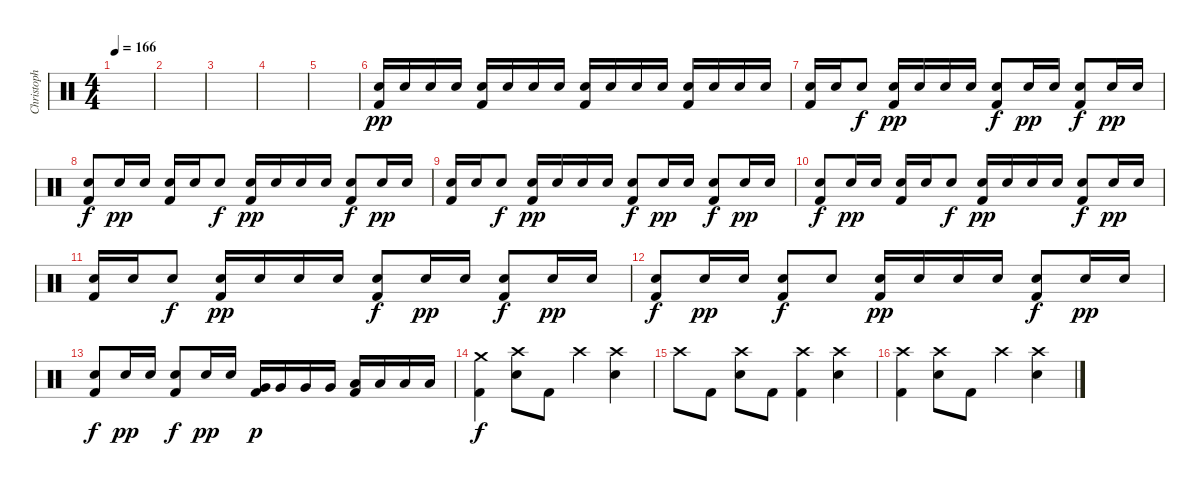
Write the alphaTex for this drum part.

\track ("Christoph" "Christoph") {instrument percussion}
\staff {score}
\articulation defaults
\ts (4 4)
\tempo 166
\clef neutral
\ks c
|
|
|
|
|
("Electric Snare (hit)" "Kick (hit) 2").16{dy pp} "Electric Snare (hit)".16 "Electric Snare (hit)".16 "Electric Snare (hit)".16 ("Electric Snare (hit)" "Kick (hit) 2").16 "Electric Snare (hit)".16 "Electric Snare (hit)".16 "Electric Snare (hit)".16 ("Electric Snare (hit)" "Kick (hit) 2").16 "Electric Snare (hit)".16 "Electric Snare (hit)".16 "Electric Snare (hit)".16 ("Electric Snare (hit)" "Kick (hit) 2").16 "Electric Snare (hit)".16 "Electric Snare (hit)".16 "Electric Snare (hit)".16 |
("Electric Snare (hit)" "Kick (hit) 2").16 "Electric Snare (hit)".16 "Electric Snare (hit)".8{dy f} ("Electric Snare (hit)" "Kick (hit) 2").16{dy pp} "Electric Snare (hit)".16 "Electric Snare (hit)".16 "Electric Snare (hit)".16 ("Electric Snare (hit)" "Kick (hit) 2").8{dy f} "Electric Snare (hit)".16{dy pp} "Electric Snare (hit)".16 ("Electric Snare (hit)" "Kick (hit) 2").8{dy f} "Electric Snare (hit)".16{dy pp} "Electric Snare (hit)".16 |
("Electric Snare (hit)" "Kick (hit) 2").8{dy f} "Electric Snare (hit)".16{dy pp} "Electric Snare (hit)".16 ("Electric Snare (hit)" "Kick (hit) 2").16 "Electric Snare (hit)".16 "Electric Snare (hit)".8{dy f} ("Electric Snare (hit)" "Kick (hit) 2").16{dy pp} "Electric Snare (hit)".16 "Electric Snare (hit)".16 "Electric Snare (hit)".16 ("Electric Snare (hit)" "Kick (hit) 2").8{dy f} "Electric Snare (hit)".16{dy pp} "Electric Snare (hit)".16 |
("Electric Snare (hit)" "Kick (hit) 2").16 "Electric Snare (hit)".16 "Electric Snare (hit)".8{dy f} ("Electric Snare (hit)" "Kick (hit) 2").16{dy pp} "Electric Snare (hit)".16 "Electric Snare (hit)".16 "Electric Snare (hit)".16 ("Electric Snare (hit)" "Kick (hit) 2").8{dy f} "Electric Snare (hit)".16{dy pp} "Electric Snare (hit)".16 ("Electric Snare (hit)" "Kick (hit) 2").8{dy f} "Electric Snare (hit)".16{dy pp} "Electric Snare (hit)".16 |
("Electric Snare (hit)" "Kick (hit) 2").8{dy f} "Electric Snare (hit)".16{dy pp} "Electric Snare (hit)".16 ("Electric Snare (hit)" "Kick (hit) 2").16 "Electric Snare (hit)".16 "Electric Snare (hit)".8{dy f} ("Electric Snare (hit)" "Kick (hit) 2").16{dy pp} "Electric Snare (hit)".16 "Electric Snare (hit)".16 "Electric Snare (hit)".16 ("Electric Snare (hit)" "Kick (hit) 2").8{dy f} "Electric Snare (hit)".16{dy pp} "Electric Snare (hit)".16 |
("Electric Snare (hit)" "Kick (hit) 2").16 "Electric Snare (hit)".16 "Electric Snare (hit)".8{dy f} ("Electric Snare (hit)" "Kick (hit) 2").16{dy pp} "Electric Snare (hit)".16 "Electric Snare (hit)".16 "Electric Snare (hit)".16 ("Electric Snare (hit)" "Kick (hit) 2").8{dy f} "Electric Snare (hit)".16{dy pp} "Electric Snare (hit)".16 ("Electric Snare (hit)" "Kick (hit) 2").8{dy f} "Electric Snare (hit)".16{dy pp} "Electric Snare (hit)".16 |
("Electric Snare (hit)" "Kick (hit) 2").8{dy f} "Electric Snare (hit)".16{dy pp} "Electric Snare (hit)".16 ("Electric Snare (hit)" "Kick (hit) 2").8{dy f} "Electric Snare (hit)".8 ("Electric Snare (hit)" "Kick (hit) 2").16{dy pp} "Electric Snare (hit)".16 "Electric Snare (hit)".16 "Electric Snare (hit)".16 ("Electric Snare (hit)" "Kick (hit) 2").8{dy f} "Electric Snare (hit)".16{dy pp} "Electric Snare (hit)".16 |
("Electric Snare (hit)" "Kick (hit) 2").8{dy f} "Electric Snare (hit)".16{dy pp} "Electric Snare (hit)".16 ("Electric Snare (hit)" "Kick (hit) 2").8{dy f} "Electric Snare (hit)".16{dy pp} "Electric Snare (hit)".16 ("Very Low Tom (hit)" "Kick (hit) 2").16{dy p} "Very Low Tom (hit)".16 "Very Low Tom (hit)".16 "Very Low Tom (hit)".16 ("Low Floor Tom (hit)" "Kick (hit) 2").16 "Low Floor Tom (hit)".16 "Low Floor Tom (hit)".16 "Low Floor Tom (hit)".16 |
("Crash medium (hit)" "Kick (hit) 2").4{dy f} ("Crash high (hit)" "Electric Snare (hit)").8 "Kick (hit) 2".8 "Crash high (hit)".4 ("Crash high (hit)" "Electric Snare (hit)").4 |
"Crash high (hit)".8 "Kick (hit) 2".8 ("Crash high (hit)" "Electric Snare (hit)").8 "Kick (hit) 2".8 ("Crash high (hit)" "Kick (hit) 2").4 ("Crash high (hit)" "Electric Snare (hit)").4 |
("Crash high (hit)" "Kick (hit) 2").4 ("Crash high (hit)" "Electric Snare (hit)").8 "Kick (hit) 2".8 "Crash high (hit)".4 ("Crash high (hit)" "Electric Snare (hit)").4
